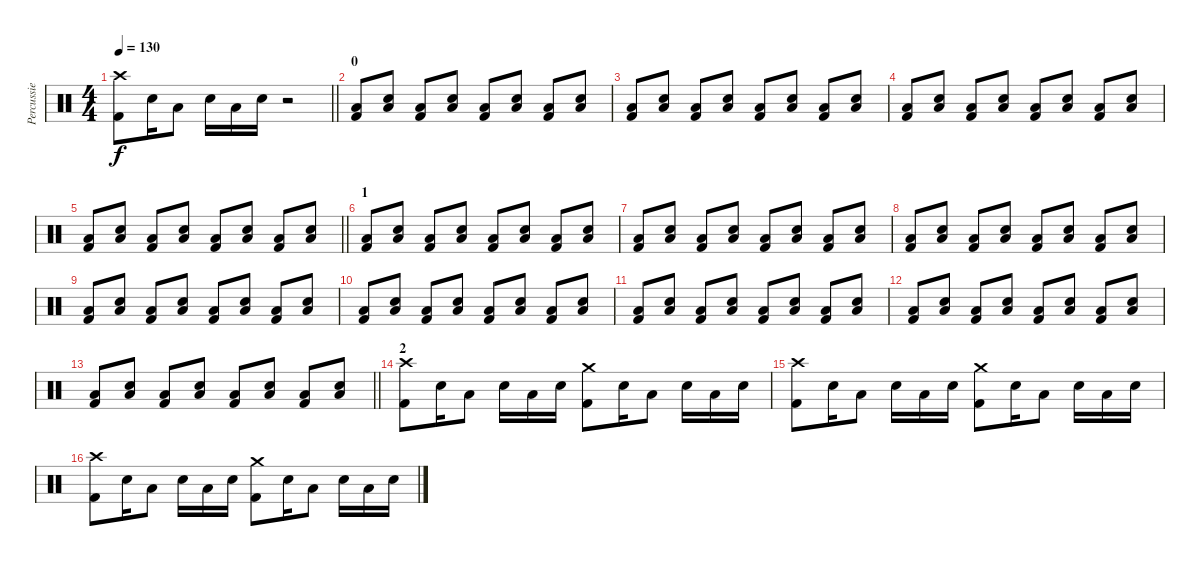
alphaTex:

\track ("Percussie" "Percussie") {instrument percussion}
\staff {score}
\articulation defaults
\ts (4 4)
\tempo 130
\clef neutral
\barLineRight lightlight
\ks c
("Crash high (hit)" "Kick (hit) 2").8{dy f} "Snare (hit) 2".16 "Low Floor Tom (hit)".8 "Snare (hit) 2".16 "Low Floor Tom (hit)".16 "Snare (hit) 2".16 r.2 |
\section ("" "0")
("Low Floor Tom (hit)" "Kick (hit) 2").8 ("Low Floor Tom (hit)" "Snare (hit) 2").8 ("Low Floor Tom (hit)" "Kick (hit) 2").8 ("Low Floor Tom (hit)" "Snare (hit) 2").8 ("Low Floor Tom (hit)" "Kick (hit) 2").8 ("Low Floor Tom (hit)" "Snare (hit) 2").8 ("Low Floor Tom (hit)" "Kick (hit) 2").8 ("Low Floor Tom (hit)" "Snare (hit) 2").8 |
("Low Floor Tom (hit)" "Kick (hit) 2").8 ("Low Floor Tom (hit)" "Snare (hit) 2").8 ("Low Floor Tom (hit)" "Kick (hit) 2").8 ("Low Floor Tom (hit)" "Snare (hit) 2").8 ("Low Floor Tom (hit)" "Kick (hit) 2").8 ("Low Floor Tom (hit)" "Snare (hit) 2").8 ("Low Floor Tom (hit)" "Kick (hit) 2").8 ("Low Floor Tom (hit)" "Snare (hit) 2").8 |
("Low Floor Tom (hit)" "Kick (hit) 2").8 ("Low Floor Tom (hit)" "Snare (hit) 2").8 ("Low Floor Tom (hit)" "Kick (hit) 2").8 ("Low Floor Tom (hit)" "Snare (hit) 2").8 ("Low Floor Tom (hit)" "Kick (hit) 2").8 ("Low Floor Tom (hit)" "Snare (hit) 2").8 ("Low Floor Tom (hit)" "Kick (hit) 2").8 ("Low Floor Tom (hit)" "Snare (hit) 2").8 |
\barLineRight lightlight
("Low Floor Tom (hit)" "Kick (hit) 2").8 ("Low Floor Tom (hit)" "Snare (hit) 2").8 ("Low Floor Tom (hit)" "Kick (hit) 2").8 ("Low Floor Tom (hit)" "Snare (hit) 2").8 ("Low Floor Tom (hit)" "Kick (hit) 2").8 ("Low Floor Tom (hit)" "Snare (hit) 2").8 ("Low Floor Tom (hit)" "Kick (hit) 2").8 ("Low Floor Tom (hit)" "Snare (hit) 2").8 |
\section ("" "1")
("Low Floor Tom (hit)" "Kick (hit) 2").8 ("Low Floor Tom (hit)" "Snare (hit) 2").8 ("Low Floor Tom (hit)" "Kick (hit) 2").8 ("Low Floor Tom (hit)" "Snare (hit) 2").8 ("Low Floor Tom (hit)" "Kick (hit) 2").8 ("Low Floor Tom (hit)" "Snare (hit) 2").8 ("Low Floor Tom (hit)" "Kick (hit) 2").8 ("Low Floor Tom (hit)" "Snare (hit) 2").8 |
("Low Floor Tom (hit)" "Kick (hit) 2").8 ("Low Floor Tom (hit)" "Snare (hit) 2").8 ("Low Floor Tom (hit)" "Kick (hit) 2").8 ("Low Floor Tom (hit)" "Snare (hit) 2").8 ("Low Floor Tom (hit)" "Kick (hit) 2").8 ("Low Floor Tom (hit)" "Snare (hit) 2").8 ("Low Floor Tom (hit)" "Kick (hit) 2").8 ("Low Floor Tom (hit)" "Snare (hit) 2").8 |
("Low Floor Tom (hit)" "Kick (hit) 2").8 ("Low Floor Tom (hit)" "Snare (hit) 2").8 ("Low Floor Tom (hit)" "Kick (hit) 2").8 ("Low Floor Tom (hit)" "Snare (hit) 2").8 ("Low Floor Tom (hit)" "Kick (hit) 2").8 ("Low Floor Tom (hit)" "Snare (hit) 2").8 ("Low Floor Tom (hit)" "Kick (hit) 2").8 ("Low Floor Tom (hit)" "Snare (hit) 2").8 |
("Low Floor Tom (hit)" "Kick (hit) 2").8 ("Low Floor Tom (hit)" "Snare (hit) 2").8 ("Low Floor Tom (hit)" "Kick (hit) 2").8 ("Low Floor Tom (hit)" "Snare (hit) 2").8 ("Low Floor Tom (hit)" "Kick (hit) 2").8 ("Low Floor Tom (hit)" "Snare (hit) 2").8 ("Low Floor Tom (hit)" "Kick (hit) 2").8 ("Low Floor Tom (hit)" "Snare (hit) 2").8 |
("Low Floor Tom (hit)" "Kick (hit) 2").8 ("Low Floor Tom (hit)" "Snare (hit) 2").8 ("Low Floor Tom (hit)" "Kick (hit) 2").8 ("Low Floor Tom (hit)" "Snare (hit) 2").8 ("Low Floor Tom (hit)" "Kick (hit) 2").8 ("Low Floor Tom (hit)" "Snare (hit) 2").8 ("Low Floor Tom (hit)" "Kick (hit) 2").8 ("Low Floor Tom (hit)" "Snare (hit) 2").8 |
("Low Floor Tom (hit)" "Kick (hit) 2").8 ("Low Floor Tom (hit)" "Snare (hit) 2").8 ("Low Floor Tom (hit)" "Kick (hit) 2").8 ("Low Floor Tom (hit)" "Snare (hit) 2").8 ("Low Floor Tom (hit)" "Kick (hit) 2").8 ("Low Floor Tom (hit)" "Snare (hit) 2").8 ("Low Floor Tom (hit)" "Kick (hit) 2").8 ("Low Floor Tom (hit)" "Snare (hit) 2").8 |
("Low Floor Tom (hit)" "Kick (hit) 2").8 ("Low Floor Tom (hit)" "Snare (hit) 2").8 ("Low Floor Tom (hit)" "Kick (hit) 2").8 ("Low Floor Tom (hit)" "Snare (hit) 2").8 ("Low Floor Tom (hit)" "Kick (hit) 2").8 ("Low Floor Tom (hit)" "Snare (hit) 2").8 ("Low Floor Tom (hit)" "Kick (hit) 2").8 ("Low Floor Tom (hit)" "Snare (hit) 2").8 |
\barLineRight lightlight
("Low Floor Tom (hit)" "Kick (hit) 2").8 ("Low Floor Tom (hit)" "Snare (hit) 2").8 ("Low Floor Tom (hit)" "Kick (hit) 2").8 ("Low Floor Tom (hit)" "Snare (hit) 2").8 ("Low Floor Tom (hit)" "Kick (hit) 2").8 ("Low Floor Tom (hit)" "Snare (hit) 2").8 ("Low Floor Tom (hit)" "Kick (hit) 2").8 ("Low Floor Tom (hit)" "Snare (hit) 2").8 |
\section ("" "2")
("Crash high (hit)" "Kick (hit) 2").8 "Snare (hit) 2".16 "Low Floor Tom (hit)".8 "Snare (hit) 2".16 "Low Floor Tom (hit)".16 "Snare (hit) 2".16 ("Crash medium (hit)" "Kick (hit) 2").8 "Snare (hit) 2".16 "Low Floor Tom (hit)".8 "Snare (hit) 2".16 "Low Floor Tom (hit)".16 "Snare (hit) 2".16 |
("Crash high (hit)" "Kick (hit) 2").8 "Snare (hit) 2".16 "Low Floor Tom (hit)".8 "Snare (hit) 2".16 "Low Floor Tom (hit)".16 "Snare (hit) 2".16 ("Crash medium (hit)" "Kick (hit) 2").8 "Snare (hit) 2".16 "Low Floor Tom (hit)".8 "Snare (hit) 2".16 "Low Floor Tom (hit)".16 "Snare (hit) 2".16 |
("Crash high (hit)" "Kick (hit) 2").8 "Snare (hit) 2".16 "Low Floor Tom (hit)".8 "Snare (hit) 2".16 "Low Floor Tom (hit)".16 "Snare (hit) 2".16 ("Crash medium (hit)" "Kick (hit) 2").8 "Snare (hit) 2".16 "Low Floor Tom (hit)".8 "Snare (hit) 2".16 "Low Floor Tom (hit)".16 "Snare (hit) 2".16
